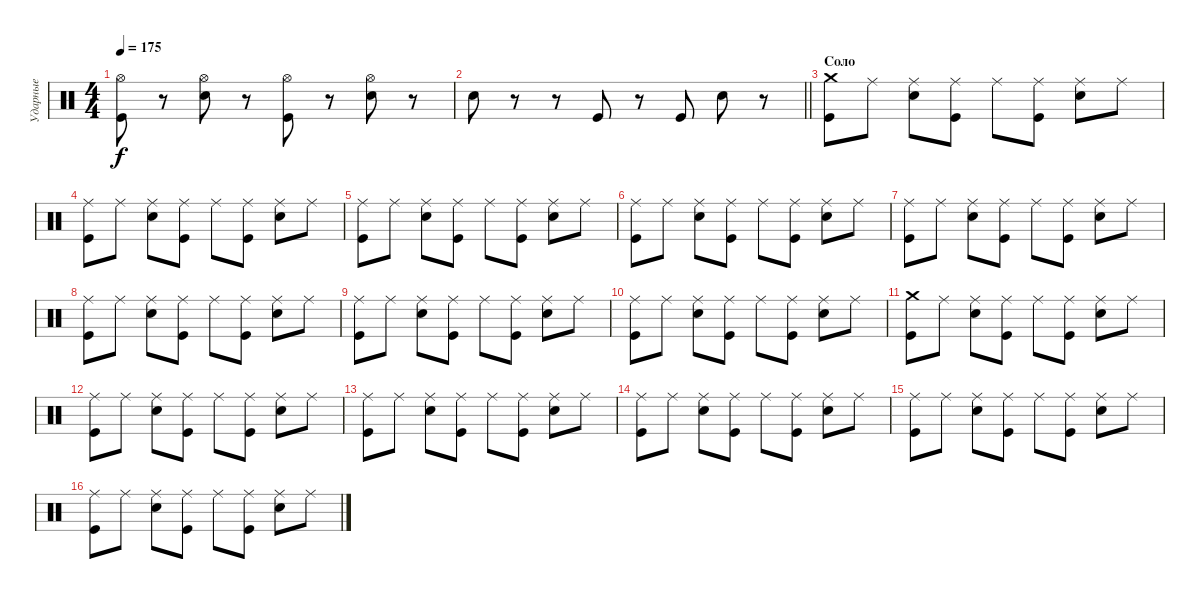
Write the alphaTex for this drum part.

\track ("Ударные" "Ударные") {instrument percussion}
\staff {score}
\articulation defaults
\ts (4 4)
\tempo 175
\clef neutral
\ks c
("Hi-Hat (open)" "Kick (hit)").8{dy f} r.8 ("Hi-Hat (open)" "Electric Snare (hit)").8 r.8 ("Hi-Hat (open)" "Kick (hit)").8 r.8 ("Hi-Hat (open)" "Electric Snare (hit)").8 r.8 |
\barLineRight lightlight "Electric Snare (hit)".8
r.8 r.8 "Kick (hit)".8 r.8 "Kick (hit)".8 "Electric Snare (hit)".8 r.8 |
\section ("" "Соло")
("Crash medium (hit)" "Kick (hit)").8 "Ride (middle)".8 ("Ride (middle)" "Electric Snare (hit)").8 ("Ride (middle)" "Kick (hit)").8 "Ride (middle)".8 ("Ride (middle)" "Kick (hit)").8 ("Ride (middle)" "Electric Snare (hit)").8 "Ride (middle)".8 |
("Ride (middle)" "Kick (hit)").8 "Ride (middle)".8 ("Ride (middle)" "Electric Snare (hit)").8 ("Ride (middle)" "Kick (hit)").8 "Ride (middle)".8 ("Ride (middle)" "Kick (hit)").8 ("Ride (middle)" "Electric Snare (hit)").8 "Ride (middle)".8 |
("Ride (middle)" "Kick (hit)").8 "Ride (middle)".8 ("Ride (middle)" "Electric Snare (hit)").8 ("Ride (middle)" "Kick (hit)").8 "Ride (middle)".8 ("Ride (middle)" "Kick (hit)").8 ("Ride (middle)" "Electric Snare (hit)").8 "Ride (middle)".8 |
("Ride (middle)" "Kick (hit)").8 "Ride (middle)".8 ("Ride (middle)" "Electric Snare (hit)").8 ("Ride (middle)" "Kick (hit)").8 "Ride (middle)".8 ("Ride (middle)" "Kick (hit)").8 ("Ride (middle)" "Electric Snare (hit)").8 "Ride (middle)".8 |
("Ride (middle)" "Kick (hit)").8 "Ride (middle)".8 ("Ride (middle)" "Electric Snare (hit)").8 ("Ride (middle)" "Kick (hit)").8 "Ride (middle)".8 ("Ride (middle)" "Kick (hit)").8 ("Ride (middle)" "Electric Snare (hit)").8 "Ride (middle)".8 |
("Ride (middle)" "Kick (hit)").8 "Ride (middle)".8 ("Ride (middle)" "Electric Snare (hit)").8 ("Ride (middle)" "Kick (hit)").8 "Ride (middle)".8 ("Ride (middle)" "Kick (hit)").8 ("Ride (middle)" "Electric Snare (hit)").8 "Ride (middle)".8 |
("Ride (middle)" "Kick (hit)").8 "Ride (middle)".8 ("Ride (middle)" "Electric Snare (hit)").8 ("Ride (middle)" "Kick (hit)").8 "Ride (middle)".8 ("Ride (middle)" "Kick (hit)").8 ("Ride (middle)" "Electric Snare (hit)").8 "Ride (middle)".8 |
("Ride (middle)" "Kick (hit)").8 "Ride (middle)".8 ("Ride (middle)" "Electric Snare (hit)").8 ("Ride (middle)" "Kick (hit)").8 "Ride (middle)".8 ("Ride (middle)" "Kick (hit)").8 ("Ride (middle)" "Electric Snare (hit)").8 "Ride (middle)".8 |
("Crash medium (hit)" "Kick (hit)").8 "Ride (middle)".8 ("Ride (middle)" "Electric Snare (hit)").8 ("Ride (middle)" "Kick (hit)").8 "Ride (middle)".8 ("Ride (middle)" "Kick (hit)").8 ("Ride (middle)" "Electric Snare (hit)").8 "Ride (middle)".8 |
("Ride (middle)" "Kick (hit)").8 "Ride (middle)".8 ("Ride (middle)" "Electric Snare (hit)").8 ("Ride (middle)" "Kick (hit)").8 "Ride (middle)".8 ("Ride (middle)" "Kick (hit)").8 ("Ride (middle)" "Electric Snare (hit)").8 "Ride (middle)".8 |
("Ride (middle)" "Kick (hit)").8 "Ride (middle)".8 ("Ride (middle)" "Electric Snare (hit)").8 ("Ride (middle)" "Kick (hit)").8 "Ride (middle)".8 ("Ride (middle)" "Kick (hit)").8 ("Ride (middle)" "Electric Snare (hit)").8 "Ride (middle)".8 |
("Ride (middle)" "Kick (hit)").8 "Ride (middle)".8 ("Ride (middle)" "Electric Snare (hit)").8 ("Ride (middle)" "Kick (hit)").8 "Ride (middle)".8 ("Ride (middle)" "Kick (hit)").8 ("Ride (middle)" "Electric Snare (hit)").8 "Ride (middle)".8 |
("Ride (middle)" "Kick (hit)").8 "Ride (middle)".8 ("Ride (middle)" "Electric Snare (hit)").8 ("Ride (middle)" "Kick (hit)").8 "Ride (middle)".8 ("Ride (middle)" "Kick (hit)").8 ("Ride (middle)" "Electric Snare (hit)").8 "Ride (middle)".8 |
("Ride (middle)" "Kick (hit)").8 "Ride (middle)".8 ("Ride (middle)" "Electric Snare (hit)").8 ("Ride (middle)" "Kick (hit)").8 "Ride (middle)".8 ("Ride (middle)" "Kick (hit)").8 ("Ride (middle)" "Electric Snare (hit)").8 "Ride (middle)".8
